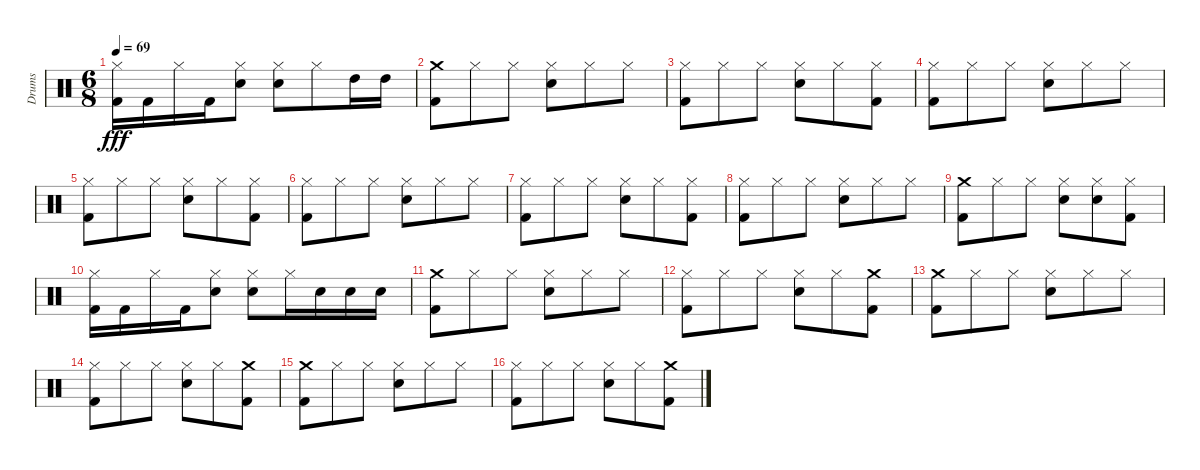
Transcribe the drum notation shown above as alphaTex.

\track ("Drums" "Drums") {instrument percussion}
\staff {score}
\articulation defaults
\ts (6 8)
\tempo 69
\clef neutral
\ks c
("Kick (hit) 2" "Hi-Hat (closed)").16{dy fff} "Kick (hit) 2".16 "Hi-Hat (closed)".16 "Kick (hit) 2".16 ("Snare (hit) 2" "Hi-Hat (closed)").8 ("Snare (hit) 2" "Hi-Hat (closed)").8 "Hi-Hat (closed)".8 "High Tom (hit)".16 "High Tom (hit)".16 |
("Kick (hit) 2" "Crash medium (hit)").8 "Hi-Hat (closed)".8 "Hi-Hat (closed)".8 ("Snare (hit) 2" "Hi-Hat (closed)").8 "Hi-Hat (closed)".8 "Hi-Hat (closed)".8 |
("Kick (hit) 2" "Hi-Hat (closed)").8 "Hi-Hat (closed)".8 "Hi-Hat (closed)".8 ("Snare (hit) 2" "Hi-Hat (closed)").8 "Hi-Hat (closed)".8 ("Kick (hit) 2" "Hi-Hat (closed)").8 |
("Kick (hit) 2" "Hi-Hat (closed)").8 "Hi-Hat (closed)".8 "Hi-Hat (closed)".8 ("Snare (hit) 2" "Hi-Hat (closed)").8 "Hi-Hat (closed)".8 "Hi-Hat (closed)".8 |
("Kick (hit) 2" "Hi-Hat (closed)").8 "Hi-Hat (closed)".8 "Hi-Hat (closed)".8 ("Snare (hit) 2" "Hi-Hat (closed)").8 "Hi-Hat (closed)".8 ("Kick (hit) 2" "Hi-Hat (closed)").8 |
("Kick (hit) 2" "Hi-Hat (closed)").8 "Hi-Hat (closed)".8 "Hi-Hat (closed)".8 ("Snare (hit) 2" "Hi-Hat (closed)").8 "Hi-Hat (closed)".8 "Hi-Hat (closed)".8 |
("Kick (hit) 2" "Hi-Hat (closed)").8 "Hi-Hat (closed)".8 "Hi-Hat (closed)".8 ("Snare (hit) 2" "Hi-Hat (closed)").8 "Hi-Hat (closed)".8 ("Kick (hit) 2" "Hi-Hat (closed)").8 |
("Kick (hit) 2" "Hi-Hat (closed)").8 "Hi-Hat (closed)".8 "Hi-Hat (closed)".8 ("Snare (hit) 2" "Hi-Hat (closed)").8 "Hi-Hat (closed)".8 "Hi-Hat (closed)".8 |
("Kick (hit) 2" "Crash medium (hit)").8 "Hi-Hat (closed)".8 "Hi-Hat (closed)".8 ("Snare (hit) 2" "Hi-Hat (closed)").8 ("Snare (hit) 2" "Hi-Hat (closed)").8 ("Kick (hit) 2" "Hi-Hat (closed)").8 |
("Kick (hit) 2" "Hi-Hat (closed)").16 "Kick (hit) 2".16 "Hi-Hat (closed)".16 "Kick (hit) 2".16 ("Snare (hit) 2" "Hi-Hat (closed)").8 ("Snare (hit) 2" "Hi-Hat (closed)").8 "Hi-Hat (closed)".16 "Snare (hit) 2".16 "Snare (hit) 2".16 "Snare (hit) 2".16 |
("Kick (hit) 2" "Crash medium (hit)").8 "Hi-Hat (closed)".8 "Hi-Hat (closed)".8 ("Snare (hit) 2" "Hi-Hat (closed)").8 "Hi-Hat (closed)".8 "Hi-Hat (closed)".8 |
("Kick (hit) 2" "Hi-Hat (closed)").8 "Hi-Hat (closed)".8 "Hi-Hat (closed)".8 ("Snare (hit) 2" "Hi-Hat (closed)").8 "Hi-Hat (closed)".8 ("Kick (hit) 2" "Crash medium (hit)").8 |
("Kick (hit) 2" "Crash medium (hit)").8 "Hi-Hat (closed)".8 "Hi-Hat (closed)".8 ("Snare (hit) 2" "Hi-Hat (closed)").8 "Hi-Hat (closed)".8 "Hi-Hat (closed)".8 |
("Kick (hit) 2" "Hi-Hat (closed)").8 "Hi-Hat (closed)".8 "Hi-Hat (closed)".8 ("Snare (hit) 2" "Hi-Hat (closed)").8 "Hi-Hat (closed)".8 ("Kick (hit) 2" "Crash medium (hit)").8 |
("Crash medium (hit)" "Kick (hit) 2").8 "Hi-Hat (closed)".8 "Hi-Hat (closed)".8 ("Snare (hit) 2" "Hi-Hat (closed)").8 "Hi-Hat (closed)".8 "Hi-Hat (closed)".8 |
("Hi-Hat (closed)" "Kick (hit) 2").8 "Hi-Hat (closed)".8 "Hi-Hat (closed)".8 ("Snare (hit) 2" "Hi-Hat (closed)").8 "Hi-Hat (closed)".8 ("Crash medium (hit)" "Kick (hit) 2").8
